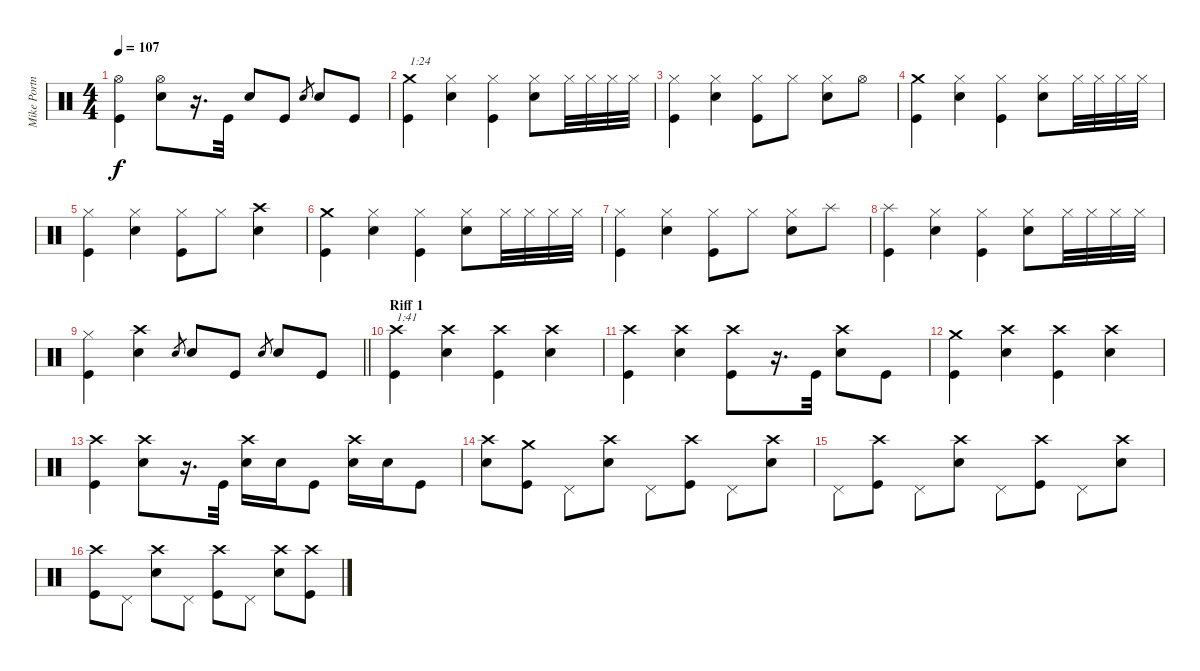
\track ("Mike Portnoy" "Mike Portn") {instrument percussion}
\staff {score}
\articulation defaults
\ts (4 4)
\tempo 107
\clef neutral
\ks c
("Hi-Hat (open)" "Kick (hit)").4{dy f} ("Hi-Hat (open)" "Snare (hit) 2").8 r.16{d} "Kick (hit)".32 "Snare (hit) 2".8 "Kick (hit)".8 "Snare (hit) 2".8{gr} "Snare (hit) 2".8 "Kick (hit)".8 |
("Crash medium (hit)" "Kick (hit)").4{txt "1:24"} ("Hi-Hat (closed)" "Snare (hit) 2").4 ("Hi-Hat (closed)" "Kick (hit)").4 ("Hi-Hat (closed)" "Snare (hit) 2").8 "Hi-Hat (closed)".32 "Hi-Hat (closed)".32 "Hi-Hat (closed)".32 "Hi-Hat (closed)".32 |
("Hi-Hat (closed)" "Kick (hit)").4 ("Hi-Hat (closed)" "Snare (hit) 2").4 ("Hi-Hat (closed)" "Kick (hit)").8 "Hi-Hat (closed)".8 ("Hi-Hat (closed)" "Snare (hit) 2").8 "Hi-Hat (open)".8 |
("Crash medium (hit)" "Kick (hit)").4 ("Hi-Hat (closed)" "Snare (hit) 2").4 ("Hi-Hat (closed)" "Kick (hit)").4 ("Hi-Hat (closed)" "Snare (hit) 2").8 "Hi-Hat (closed)".32 "Hi-Hat (closed)".32 "Hi-Hat (closed)".32 "Hi-Hat (closed)".32 |
("Hi-Hat (closed)" "Kick (hit)").4 ("Hi-Hat (closed)" "Snare (hit) 2").4 ("Hi-Hat (closed)" "Kick (hit)").8 "Hi-Hat (closed)".8 ("Crash high (hit)" "Snare (hit) 2").4 |
("Crash medium (hit)" "Kick (hit)").4 ("Hi-Hat (closed)" "Snare (hit) 2").4 ("Hi-Hat (closed)" "Kick (hit)").4 ("Hi-Hat (closed)" "Snare (hit) 2").8 "Hi-Hat (closed)".32 "Hi-Hat (closed)".32 "Hi-Hat (closed)".32 "Hi-Hat (closed)".32 |
("Hi-Hat (closed)" "Kick (hit)").4 ("Hi-Hat (closed)" "Snare (hit) 2").4 ("Hi-Hat (closed)" "Kick (hit)").8 "Hi-Hat (closed)".8 ("Hi-Hat (closed)" "Snare (hit) 2").8 "Splash (hit)".8 |
("Splash (hit)" "Kick (hit)").4 ("Hi-Hat (closed)" "Snare (hit) 2").4 ("Hi-Hat (closed)" "Kick (hit)").4 ("Hi-Hat (closed)" "Snare (hit) 2").8 "Hi-Hat (closed)".32 "Hi-Hat (closed)".32 "Hi-Hat (closed)".32 "Hi-Hat (closed)".32 |
\barLineRight lightlight
("Hi-Hat (closed)" "Kick (hit)").4 ("Crash high (hit)" "Snare (hit) 2").4 "Snare (hit) 2".8{gr} "Snare (hit) 2".8 "Kick (hit)".8 "Snare (hit) 2".8{gr} "Snare (hit) 2".8 "Kick (hit)".8 |
\section ("" "Riff 1")
("Crash high (hit)" "Kick (hit)").4{txt "1:41"} ("Crash high (hit)" "Snare (hit) 2").4 ("Crash high (hit)" "Kick (hit)").4 ("Crash high (hit)" "Snare (hit) 2").4 |
("Crash high (hit)" "Kick (hit)").4 ("Crash high (hit)" "Snare (hit) 2").4 ("Crash high (hit)" "Kick (hit)").8 r.16{d} "Kick (hit)".32 ("Crash high (hit)" "Snare (hit) 2").8 "Kick (hit)".8 |
("Crash medium (hit)" "Kick (hit)").4 ("Crash high (hit)" "Snare (hit) 2").4 ("Crash high (hit)" "Kick (hit)").4 ("Crash high (hit)" "Snare (hit) 2").4 |
("Crash high (hit)" "Kick (hit)").4 ("Crash high (hit)" "Snare (hit) 2").8 r.16{d} "Kick (hit)".32 ("Crash high (hit)" "Snare (hit) 2").16 "Snare (hit) 2".16 "Kick (hit)".8 ("Crash high (hit)" "Snare (hit) 2").16 "Snare (hit) 2".16 "Kick (hit)".8 |
("Crash high (hit)" "Snare (hit) 2").8 ("Crash medium (hit)" "Kick (hit)").8 "Pedal Hi-Hat (hit)".8 ("Crash high (hit)" "Snare (hit) 2").8 "Pedal Hi-Hat (hit)".8 ("Crash high (hit)" "Kick (hit)").8 "Pedal Hi-Hat (hit)".8 ("Crash high (hit)" "Snare (hit) 2").8 |
"Pedal Hi-Hat (hit)".8 ("Crash high (hit)" "Kick (hit)").8 "Pedal Hi-Hat (hit)".8 ("Crash high (hit)" "Snare (hit) 2").8 "Pedal Hi-Hat (hit)".8 ("Crash high (hit)" "Kick (hit)").8 "Pedal Hi-Hat (hit)".8 ("Crash high (hit)" "Snare (hit) 2").8 |
("Crash high (hit)" "Kick (hit)").8 "Pedal Hi-Hat (hit)".8 ("Crash high (hit)" "Snare (hit) 2").8 "Pedal Hi-Hat (hit)".8 ("Crash high (hit)" "Kick (hit)").8 "Pedal Hi-Hat (hit)".8 ("Crash high (hit)" "Snare (hit) 2").8 ("Crash high (hit)" "Kick (hit)").8
